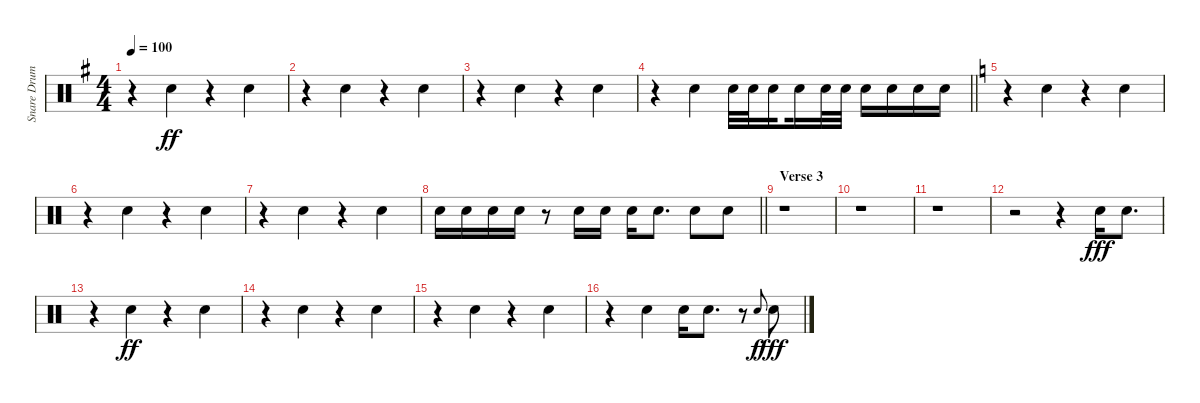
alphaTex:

\track ("Snare Drum" "Snare Drum") {instrument percussion}
\staff {score}
\articulation defaults
\ts (4 4)
\tempo 100
\clef neutral
\ks eminor
r.4{dy ff beam merge} "Electric Snare (hit)".4 r.4{beam merge} "Electric Snare (hit)".4 |
r.4{beam merge} "Electric Snare (hit)".4 r.4{beam merge} "Electric Snare (hit)".4 |
r.4{beam merge} "Electric Snare (hit)".4 r.4{beam merge} "Electric Snare (hit)".4 |
\barLineRight lightlight
r.4{beam merge} "Electric Snare (hit)".4 "Electric Snare (hit)".32 "Electric Snare (hit)".32 "Electric Snare (hit)".16{beam splitsecondary} "Electric Snare (hit)".16 "Electric Snare (hit)".32 "Electric Snare (hit)".32 "Electric Snare (hit)".16 "Electric Snare (hit)".16 "Electric Snare (hit)".16 "Electric Snare (hit)".16 |
\ks c
r.4{beam merge} "Electric Snare (hit)".4 r.4{beam merge} "Electric Snare (hit)".4 |
r.4{beam merge} "Electric Snare (hit)".4 r.4{beam merge} "Electric Snare (hit)".4 |
r.4{beam merge} "Electric Snare (hit)".4 r.4{beam merge} "Electric Snare (hit)".4 |
\barLineRight lightlight "Electric Snare (hit)".16 "Electric Snare (hit)".16 "Electric Snare (hit)".16 "Electric Snare (hit)".16
r.8 "Electric Snare (hit)".16 "Electric Snare (hit)".16 "Electric Snare (hit)".16 "Electric Snare (hit)".8{d} "Electric Snare (hit)".8 "Electric Snare (hit)".8 |
\section ("" "Verse 3")
\ks aminor
r.1 |
r.1 |
r.1 |
r.2 r.4 "Electric Snare (hit)".16{dy fff} "Electric Snare (hit)".8{d} |
r.4{beam merge} "Electric Snare (hit)".4{dy ff} r.4{beam merge} "Electric Snare (hit)".4 |
r.4{beam merge} "Electric Snare (hit)".4 r.4{beam merge} "Electric Snare (hit)".4 |
r.4{beam merge} "Electric Snare (hit)".4 r.4{beam merge} "Electric Snare (hit)".4 |
r.4{beam merge} "Electric Snare (hit)".4 "Electric Snare (hit)".16 "Electric Snare (hit)".8{d} r.8 "Electric Snare (hit)".8{gr onbeat dy f} "Electric Snare (hit)".8{dy fff}
